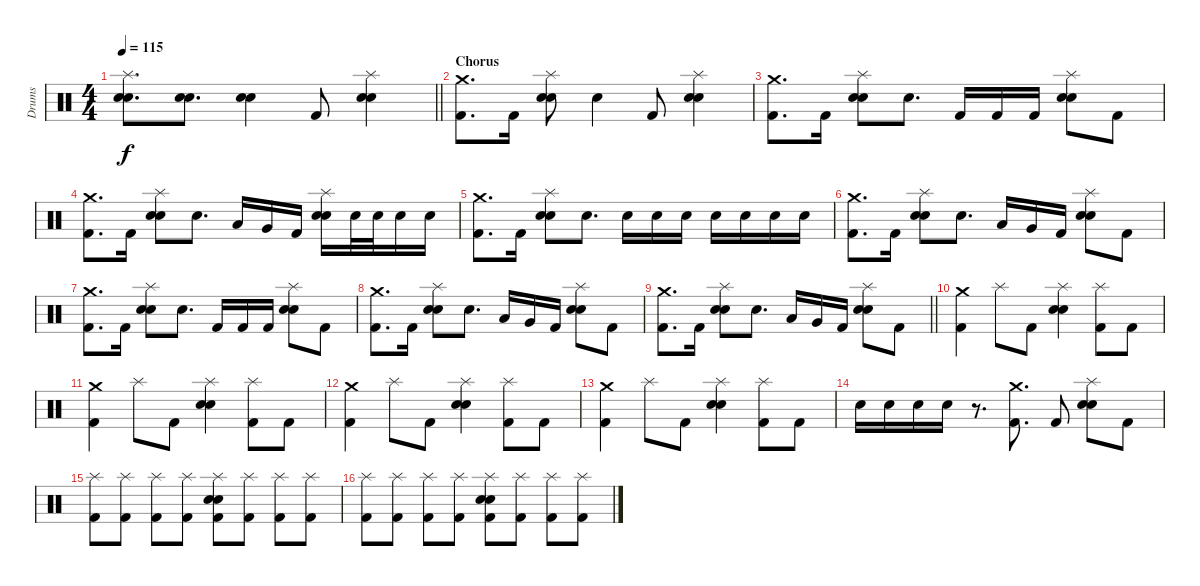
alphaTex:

\track ("Drums" "Drums") {instrument percussion}
\staff {score}
\articulation defaults
\ts (4 4)
\tempo 115
\clef neutral
\barLineRight lightlight
\ks c
("Splash (hit)" "Electric Snare (hit)" "Snare (hit) 2").8{d dy f} ("Electric Snare (hit)" "Snare (hit) 2").8{d} ("Electric Snare (hit)" "Snare (hit) 2").4 "Kick (hit) 2".8 ("Splash (hit)" "Electric Snare (hit)" "Snare (hit) 2").4 |
\section ("" "Chorus")
("Crash medium (hit)" "Kick (hit) 2").8{d} "Kick (hit) 2".16 ("Splash (hit)" "Electric Snare (hit)" "Snare (hit) 2").8 "Electric Snare (hit)".4 "Kick (hit) 2".8 ("Splash (hit)" "Electric Snare (hit)" "Snare (hit) 2").4 |
("Crash medium (hit)" "Kick (hit) 2").8{d} "Kick (hit) 2".16 ("Splash (hit)" "Electric Snare (hit)" "Snare (hit) 2").8 "Electric Snare (hit)".8{d} "Kick (hit) 2".16 "Kick (hit) 2".16 "Kick (hit) 2".16 ("Splash (hit)" "Electric Snare (hit)" "Snare (hit) 2").8 "Kick (hit) 2".8 |
("Crash medium (hit)" "Kick (hit) 2").8{d} "Kick (hit) 2".16 ("Splash (hit)" "Electric Snare (hit)" "Snare (hit) 2").8 "Electric Snare (hit)".8{d} "Low Tom (hit)".16 "Very Low Tom (hit)".16 "Kick (hit) 2".16 ("Splash (hit)" "Electric Snare (hit)" "Snare (hit) 2").16 "Electric Snare (hit)".32 "Electric Snare (hit)".32 "Electric Snare (hit)".16 "Electric Snare (hit)".16 |
("Crash medium (hit)" "Kick (hit) 2").8{d} "Kick (hit) 2".16 ("Splash (hit)" "Electric Snare (hit)" "Snare (hit) 2").8 "Electric Snare (hit)".8{d} "Electric Snare (hit)".16 "Electric Snare (hit)".16 "Electric Snare (hit)".16 "Electric Snare (hit)".16 "Electric Snare (hit)".16 "Electric Snare (hit)".16 "Electric Snare (hit)".16 |
("Crash medium (hit)" "Kick (hit) 2").8{d} "Kick (hit) 2".16 ("Splash (hit)" "Electric Snare (hit)" "Snare (hit) 2").8 "Electric Snare (hit)".8{d} "Low Tom (hit)".16 "Very Low Tom (hit)".16 "Kick (hit) 2".16 ("Splash (hit)" "Electric Snare (hit)" "Snare (hit) 2").8 "Kick (hit) 2".8 |
("Crash medium (hit)" "Kick (hit) 2").8{d} "Kick (hit) 2".16 ("Splash (hit)" "Electric Snare (hit)" "Snare (hit) 2").8 "Electric Snare (hit)".8{d} "Kick (hit) 2".16 "Kick (hit) 2".16 "Kick (hit) 2".16 ("Splash (hit)" "Electric Snare (hit)" "Snare (hit) 2").8 "Kick (hit) 2".8 |
("Crash medium (hit)" "Kick (hit) 2").8{d} "Kick (hit) 2".16 ("Splash (hit)" "Electric Snare (hit)" "Snare (hit) 2").8 "Electric Snare (hit)".8{d} "Low Tom (hit)".16 "Very Low Tom (hit)".16 "Kick (hit) 2".16 ("Splash (hit)" "Electric Snare (hit)" "Snare (hit) 2").8 "Kick (hit) 2".8 |
\barLineRight lightlight
("Crash medium (hit)" "Kick (hit) 2").8{d} "Kick (hit) 2".16 ("Splash (hit)" "Electric Snare (hit)" "Snare (hit) 2").8 "Electric Snare (hit)".8{d} "Low Tom (hit)".16 "Very Low Tom (hit)".16 "Kick (hit) 2".16 ("Splash (hit)" "Electric Snare (hit)" "Snare (hit) 2").8 "Kick (hit) 2".8 |
("Crash medium (hit)" "Kick (hit) 2").4 "Splash (hit)".8 "Kick (hit) 2".8 ("Splash (hit)" "Electric Snare (hit)" "Snare (hit) 2").4 ("Splash (hit)" "Kick (hit) 2").8 "Kick (hit) 2".8 |
("Crash medium (hit)" "Kick (hit) 2").4 "Splash (hit)".8 "Kick (hit) 2".8 ("Splash (hit)" "Electric Snare (hit)" "Snare (hit) 2").4 ("Splash (hit)" "Kick (hit) 2").8 "Kick (hit) 2".8 |
("Crash medium (hit)" "Kick (hit) 2").4 "Splash (hit)".8 "Kick (hit) 2".8 ("Splash (hit)" "Electric Snare (hit)" "Snare (hit) 2").4 ("Splash (hit)" "Kick (hit) 2").8 "Kick (hit) 2".8 |
("Crash medium (hit)" "Kick (hit) 2").4 "Splash (hit)".8 "Kick (hit) 2".8 ("Splash (hit)" "Electric Snare (hit)" "Snare (hit) 2").4 ("Splash (hit)" "Kick (hit) 2").8 "Kick (hit) 2".8 |
"Electric Snare (hit)".16 "Electric Snare (hit)".16 "Electric Snare (hit)".16 "Electric Snare (hit)".16 r.8{d} ("Crash medium (hit)" "Kick (hit) 2").8{d} "Kick (hit) 2".8 ("Splash (hit)" "Electric Snare (hit)" "Snare (hit) 2").8 "Kick (hit) 2".8 |
("Splash (hit)" "Kick (hit) 2").8 ("Splash (hit)" "Kick (hit) 2").8 ("Splash (hit)" "Kick (hit) 2").8 ("Splash (hit)" "Kick (hit) 2").8 ("Splash (hit)" "Electric Snare (hit)" "Snare (hit) 2" "Kick (hit) 2").8 ("Splash (hit)" "Kick (hit) 2").8 ("Splash (hit)" "Kick (hit) 2").8 ("Splash (hit)" "Kick (hit) 2").8 |
("Splash (hit)" "Kick (hit) 2").8 ("Splash (hit)" "Kick (hit) 2").8 ("Splash (hit)" "Kick (hit) 2").8 ("Splash (hit)" "Kick (hit) 2").8 ("Splash (hit)" "Electric Snare (hit)" "Snare (hit) 2" "Kick (hit) 2").8 ("Splash (hit)" "Kick (hit) 2").8 ("Splash (hit)" "Kick (hit) 2").8 ("Splash (hit)" "Kick (hit) 2").8
